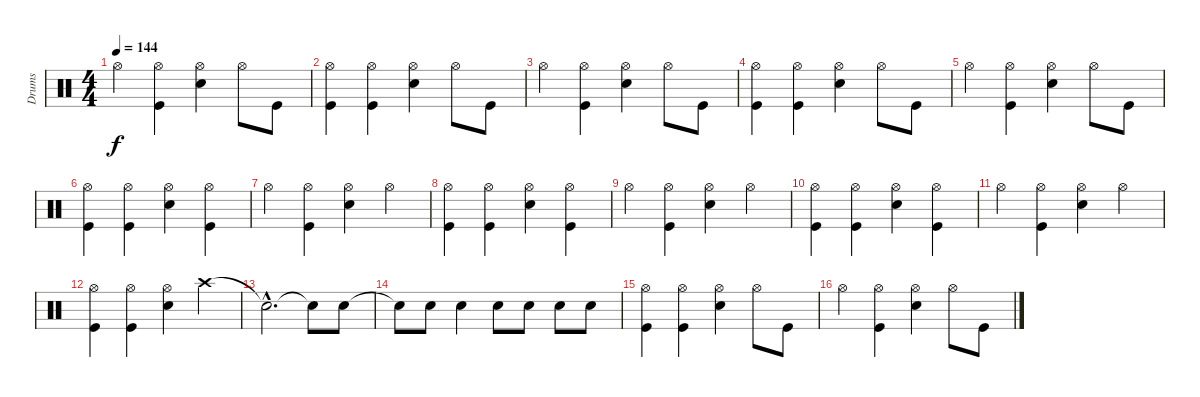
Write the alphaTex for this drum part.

\track ("Drums               " "Drums     ") {instrument percussion}
\staff {score}
\articulation defaults
\ts (4 4)
\tempo 144
\clef neutral
\ks c "Hi-Hat (open)".4{dy f}
("Hi-Hat (open)" "Kick (hit)").4 ("Snare (hit) 2" "Hi-Hat (open)").4 "Hi-Hat (open)".8 "Kick (hit)".8 |
("Kick (hit)" "Hi-Hat (open)").4 ("Kick (hit)" "Hi-Hat (open)").4 ("Snare (hit) 2" "Hi-Hat (open)").4 "Hi-Hat (open)".8 "Kick (hit)".8 |
"Hi-Hat (open)".4 ("Hi-Hat (open)" "Kick (hit)").4 ("Snare (hit) 2" "Hi-Hat (open)").4 "Hi-Hat (open)".8 "Kick (hit)".8 |
("Kick (hit)" "Hi-Hat (open)").4 ("Kick (hit)" "Hi-Hat (open)").4 ("Snare (hit) 2" "Hi-Hat (open)").4 "Hi-Hat (open)".8 "Kick (hit)".8 |
"Hi-Hat (open)".4 ("Hi-Hat (open)" "Kick (hit)").4 ("Snare (hit) 2" "Hi-Hat (open)").4 "Hi-Hat (open)".8 "Kick (hit)".8 |
("Kick (hit)" "Hi-Hat (open)").4 ("Kick (hit)" "Hi-Hat (open)").4 ("Snare (hit) 2" "Hi-Hat (open)").4 ("Kick (hit)" "Hi-Hat (open)").4 |
"Hi-Hat (open)".4 ("Kick (hit)" "Hi-Hat (open)").4 ("Snare (hit) 2" "Hi-Hat (open)").4 "Hi-Hat (open)".4 |
("Kick (hit)" "Hi-Hat (open)").4 ("Kick (hit)" "Hi-Hat (open)").4 ("Snare (hit) 2" "Hi-Hat (open)").4 ("Kick (hit)" "Hi-Hat (open)").4 |
"Hi-Hat (open)".4 ("Kick (hit)" "Hi-Hat (open)").4 ("Snare (hit) 2" "Hi-Hat (open)").4 "Hi-Hat (open)".4 |
("Kick (hit)" "Hi-Hat (open)").4 ("Kick (hit)" "Hi-Hat (open)").4 ("Snare (hit) 2" "Hi-Hat (open)").4 ("Kick (hit)" "Hi-Hat (open)").4 |
"Hi-Hat (open)".4 ("Kick (hit)" "Hi-Hat (open)").4 ("Snare (hit) 2" "Hi-Hat (open)").4 "Hi-Hat (open)".4 |
("Kick (hit)" "Hi-Hat (open)").4 ("Kick (hit)" "Hi-Hat (open)").4 ("Snare (hit) 2" "Hi-Hat (open)").4 "Crash high (hit)".4 |
"Snare (hit)"{hac t}.2{d} "Snare (hit)"{t}.8 "Snare (hit) 2".8 |
"Snare (hit)"{t}.8 "Snare (hit) 2".8 "Snare (hit) 2".4 "Snare (hit) 2".8 "Snare (hit) 2".8 "Snare (hit) 2".8 "Snare (hit) 2".8 |
("Kick (hit)" "Hi-Hat (open)").4 ("Kick (hit)" "Hi-Hat (open)").4 ("Snare (hit) 2" "Hi-Hat (open)").4 "Hi-Hat (open)".8 "Kick (hit)".8 |
"Hi-Hat (open)".4 ("Hi-Hat (open)" "Kick (hit)").4 ("Snare (hit) 2" "Hi-Hat (open)").4 "Hi-Hat (open)".8 "Kick (hit)".8
